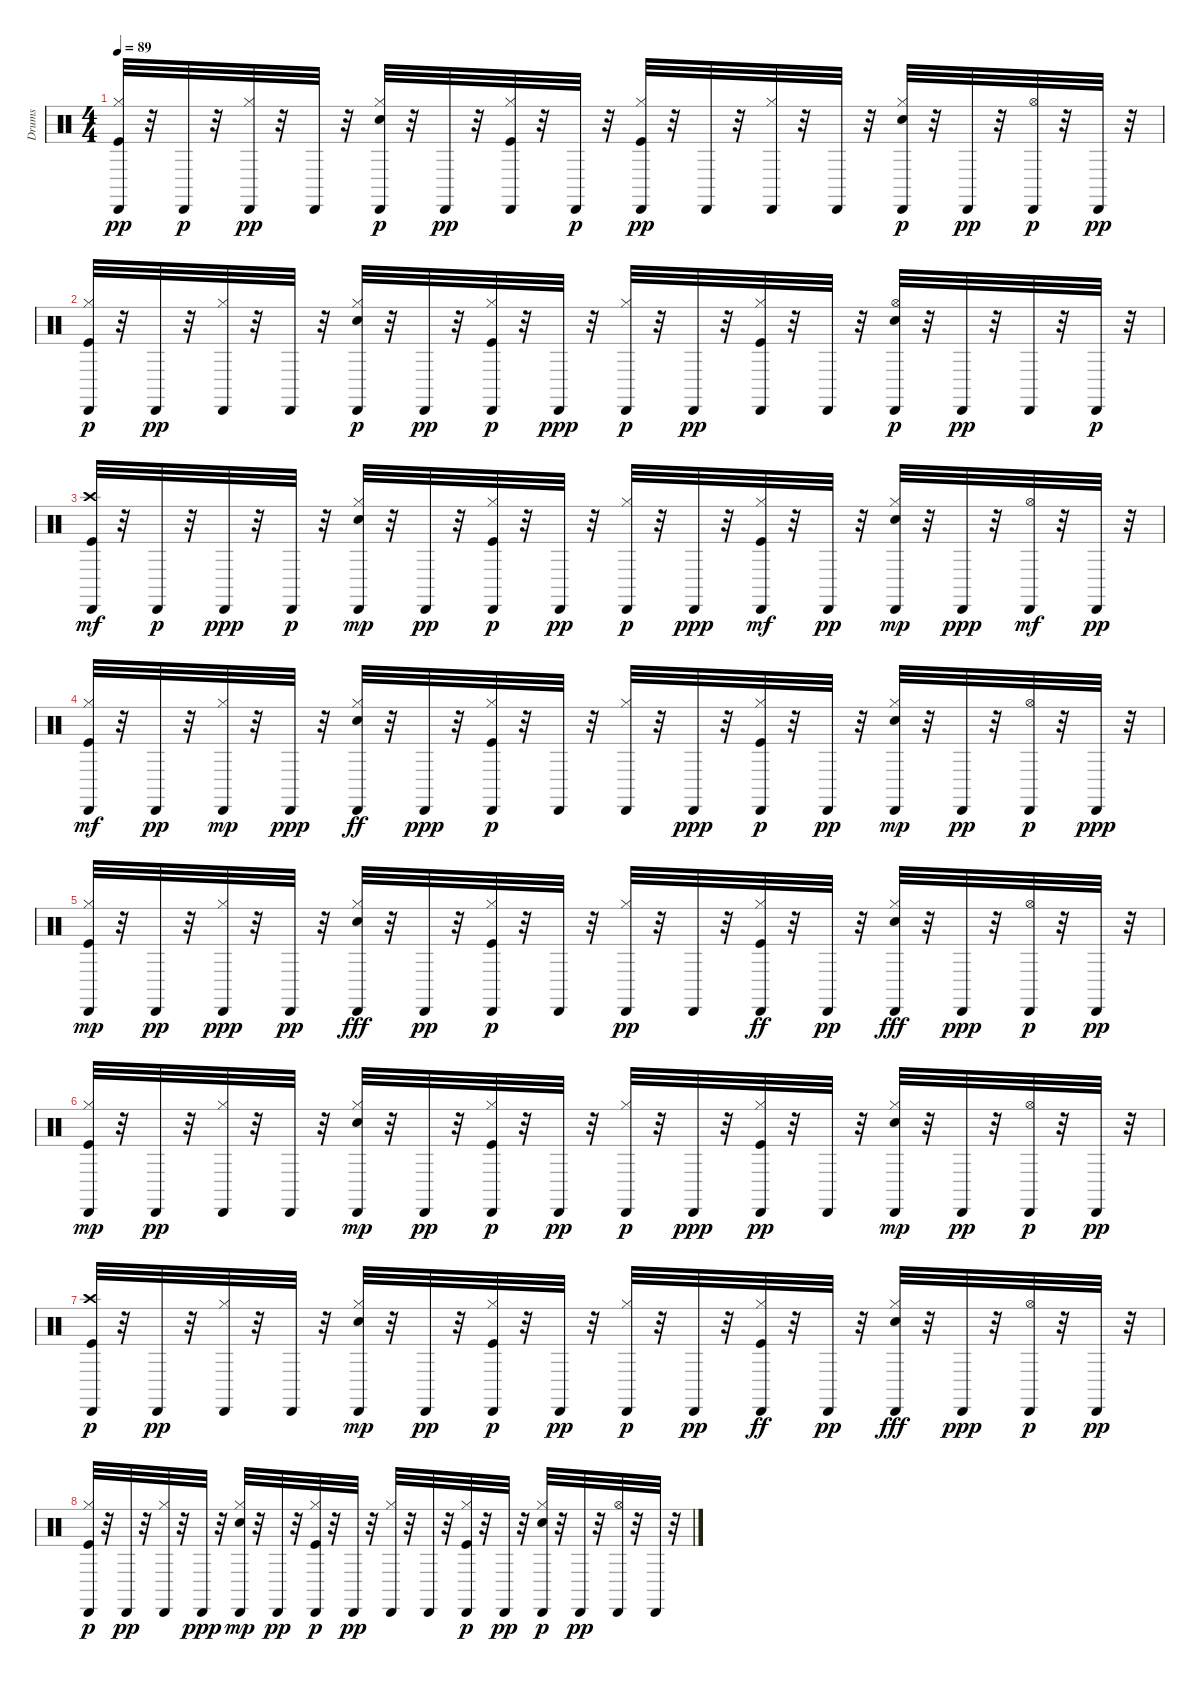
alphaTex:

\track ("Drums" "Drums") {instrument percussion}
\staff {score}
\articulation defaults
\ts (4 4)
\tempo 89
\clef neutral
\ks c
("Kick (hit)" "Hi-Hat (closed)" "Cabasa (hit)").32{dy pp} r.32 "Cabasa (hit)".32{dy p} r.32 ("Hi-Hat (closed)" "Cabasa (hit)").32{dy pp} r.32 "Cabasa (hit)".32 r.32 ("Electric Snare (hit)" "Hi-Hat (closed)" "Cabasa (hit)").32{dy p} r.32 "Cabasa (hit)".32{dy pp} r.32 ("Hi-Hat (closed)" "Kick (hit)" "Cabasa (hit)").32 r.32 "Cabasa (hit)".32{dy p} r.32 ("Kick (hit)" "Hi-Hat (closed)" "Cabasa (hit)").32{dy pp} r.32 "Cabasa (hit)".32 r.32 ("Hi-Hat (closed)" "Cabasa (hit)").32 r.32 "Cabasa (hit)".32 r.32 ("Hi-Hat (closed)" "Electric Snare (hit)" "Cabasa (hit)").32{dy p} r.32 "Cabasa (hit)".32{dy pp} r.32 ("Hi-Hat (open)" "Cabasa (hit)").32{dy p} r.32 "Cabasa (hit)".32{dy pp} r.32 |
("Hi-Hat (closed)" "Kick (hit)" "Cabasa (hit)").32{dy p} r.32 "Cabasa (hit)".32{dy pp} r.32 ("Hi-Hat (closed)" "Cabasa (hit)").32 r.32 "Cabasa (hit)".32 r.32 ("Hi-Hat (closed)" "Electric Snare (hit)" "Cabasa (hit)").32{dy p} r.32 "Cabasa (hit)".32{dy pp} r.32 ("Kick (hit)" "Hi-Hat (closed)" "Cabasa (hit)").32{dy p} r.32 "Cabasa (hit)".32{dy ppp} r.32 ("Hi-Hat (closed)" "Cabasa (hit)").32{dy p} r.32 "Cabasa (hit)".32{dy pp} r.32 ("Kick (hit)" "Hi-Hat (closed)" "Cabasa (hit)").32 r.32 "Cabasa (hit)".32 r.32 ("Electric Snare (hit)" "Hi-Hat (open)" "Cabasa (hit)").32{dy p} r.32 "Cabasa (hit)".32{dy pp} r.32 "Cabasa (hit)".32 r.32 "Cabasa (hit)".32{dy p} r.32 |
("Kick (hit)" "Cabasa (hit)" "Crash high (hit)").32{dy mf} r.32 "Cabasa (hit)".32{dy p} r.32 "Cabasa (hit)".32{dy ppp} r.32 "Cabasa (hit)".32{dy p} r.32 ("Electric Snare (hit)" "Hi-Hat (closed)" "Cabasa (hit)").32{dy mp} r.32 "Cabasa (hit)".32{dy pp} r.32 ("Hi-Hat (closed)" "Kick (hit)" "Cabasa (hit)").32{dy p} r.32 "Cabasa (hit)".32{dy pp} r.32 ("Hi-Hat (closed)" "Cabasa (hit)").32{dy p} r.32 "Cabasa (hit)".32{dy ppp} r.32 ("Kick (hit)" "Cabasa (hit)" "Hi-Hat (closed)").32{dy mf} r.32 "Cabasa (hit)".32{dy pp} r.32 ("Electric Snare (hit)" "Cabasa (hit)" "Hi-Hat (closed)").32{dy mp} r.32 "Cabasa (hit)".32{dy ppp} r.32 ("Cabasa (hit)" "Hi-Hat (open)").32{dy mf} r.32 "Cabasa (hit)".32{dy pp} r.32 |
("Kick (hit)" "Cabasa (hit)" "Hi-Hat (closed)").32{dy mf} r.32 "Cabasa (hit)".32{dy pp} r.32 ("Cabasa (hit)" "Hi-Hat (closed)").32{dy mp} r.32 "Cabasa (hit)".32{dy ppp} r.32 ("Hi-Hat (closed)" "Cabasa (hit)" "Electric Snare (hit)").32{dy ff} r.32 "Cabasa (hit)".32{dy ppp} r.32 ("Kick (hit)" "Hi-Hat (closed)" "Cabasa (hit)").32{dy p} r.32 "Cabasa (hit)".32 r.32 ("Hi-Hat (closed)" "Cabasa (hit)").32 r.32 "Cabasa (hit)".32{dy ppp} r.32 ("Hi-Hat (closed)" "Kick (hit)" "Cabasa (hit)").32{dy p} r.32 "Cabasa (hit)".32{dy pp} r.32 ("Electric Snare (hit)" "Hi-Hat (closed)" "Cabasa (hit)").32{dy mp} r.32 "Cabasa (hit)".32{dy pp} r.32 ("Hi-Hat (open)" "Cabasa (hit)").32{dy p} r.32 "Cabasa (hit)".32{dy ppp} r.32 |
("Kick (hit)" "Cabasa (hit)" "Hi-Hat (closed)").32{dy mp} r.32 "Cabasa (hit)".32{dy pp} r.32 ("Hi-Hat (closed)" "Cabasa (hit)").32{dy ppp} r.32 "Cabasa (hit)".32{dy pp} r.32 ("Hi-Hat (closed)" "Cabasa (hit)" "Electric Snare (hit)").32{dy fff} r.32 "Cabasa (hit)".32{dy pp} r.32 ("Hi-Hat (closed)" "Kick (hit)" "Cabasa (hit)").32{dy p} r.32 "Cabasa (hit)".32 r.32 ("Hi-Hat (closed)" "Cabasa (hit)").32{dy pp} r.32 "Cabasa (hit)".32 r.32 ("Hi-Hat (closed)" "Cabasa (hit)" "Kick (hit)").32{dy ff} r.32 "Cabasa (hit)".32{dy pp} r.32 ("Cabasa (hit)" "Electric Snare (hit)" "Hi-Hat (closed)").32{dy fff} r.32 "Cabasa (hit)".32{dy ppp} r.32 ("Hi-Hat (open)" "Cabasa (hit)").32{dy p} r.32 "Cabasa (hit)".32{dy pp} r.32 |
("Cabasa (hit)" "Kick (hit)" "Hi-Hat (closed)").32{dy mp} r.32 "Cabasa (hit)".32{dy pp} r.32 ("Hi-Hat (closed)" "Cabasa (hit)").32 r.32 "Cabasa (hit)".32 r.32 ("Hi-Hat (closed)" "Electric Snare (hit)" "Cabasa (hit)").32{dy mp} r.32 "Cabasa (hit)".32{dy pp} r.32 ("Kick (hit)" "Hi-Hat (closed)" "Cabasa (hit)").32{dy p} r.32 "Cabasa (hit)".32{dy pp} r.32 ("Hi-Hat (closed)" "Cabasa (hit)").32{dy p} r.32 "Cabasa (hit)".32{dy ppp} r.32 ("Hi-Hat (closed)" "Kick (hit)" "Cabasa (hit)").32{dy pp} r.32 "Cabasa (hit)".32 r.32 ("Electric Snare (hit)" "Hi-Hat (closed)" "Cabasa (hit)").32{dy mp} r.32 "Cabasa (hit)".32{dy pp} r.32 ("Hi-Hat (open)" "Cabasa (hit)").32{dy p} r.32 "Cabasa (hit)".32{dy pp} r.32 |
("Kick (hit)" "Crash high (hit)" "Cabasa (hit)").32{dy p} r.32 "Cabasa (hit)".32{dy pp} r.32 ("Hi-Hat (closed)" "Cabasa (hit)").32 r.32 "Cabasa (hit)".32 r.32 ("Hi-Hat (closed)" "Electric Snare (hit)" "Cabasa (hit)").32{dy mp} r.32 "Cabasa (hit)".32{dy pp} r.32 ("Hi-Hat (closed)" "Kick (hit)" "Cabasa (hit)").32{dy p} r.32 "Cabasa (hit)".32{dy pp} r.32 ("Hi-Hat (closed)" "Cabasa (hit)").32{dy p} r.32 "Cabasa (hit)".32{dy pp} r.32 ("Hi-Hat (closed)" "Cabasa (hit)" "Kick (hit)").32{dy ff} r.32 "Cabasa (hit)".32{dy pp} r.32 ("Cabasa (hit)" "Electric Snare (hit)" "Hi-Hat (closed)").32{dy fff} r.32 "Cabasa (hit)".32{dy ppp} r.32 ("Hi-Hat (open)" "Cabasa (hit)").32{dy p} r.32 "Cabasa (hit)".32{dy pp} r.32 |
("Kick (hit)" "Hi-Hat (closed)" "Cabasa (hit)").32{dy p} r.32 "Cabasa (hit)".32{dy pp} r.32 ("Hi-Hat (closed)" "Cabasa (hit)").32 r.32 "Cabasa (hit)".32{dy ppp} r.32 ("Electric Snare (hit)" "Hi-Hat (closed)" "Cabasa (hit)").32{dy mp} r.32 "Cabasa (hit)".32{dy pp} r.32 ("Kick (hit)" "Hi-Hat (closed)" "Cabasa (hit)").32{dy p} r.32 "Cabasa (hit)".32{dy pp} r.32 ("Hi-Hat (closed)" "Cabasa (hit)").32 r.32 "Cabasa (hit)".32 r.32 ("Hi-Hat (closed)" "Kick (hit)" "Cabasa (hit)").32{dy p} r.32 "Cabasa (hit)".32{dy pp} r.32 ("Electric Snare (hit)" "Hi-Hat (closed)" "Cabasa (hit)").32{dy p} r.32 "Cabasa (hit)".32{dy pp} r.32 ("Hi-Hat (open)" "Cabasa (hit)").32 r.32 "Cabasa (hit)".32 r.32
